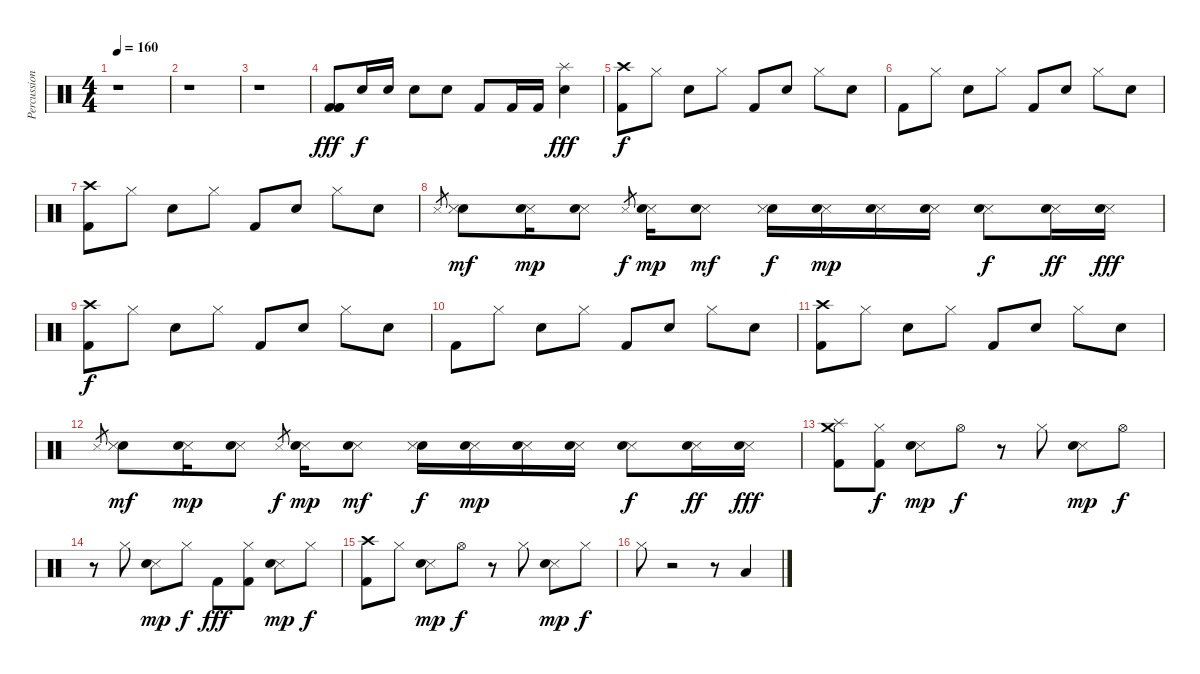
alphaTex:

\track ("Percussion" "Percussion") {instrument percussion}
\staff {score}
\articulation defaults
\ts (4 4)
\tempo 160
\clef neutral
\ks c
r.1{dy fff} |
r.1 |
r.1 |
("Kick (hit) 2" "Kick (hit) 2" "Kick (hit) 2").8 "Electric Snare (hit)".16{dy f} "Electric Snare (hit)".16 "Electric Snare (hit)".8 "Electric Snare (hit)".8 "Kick (hit) 2".8 "Kick (hit) 2".16 "Kick (hit) 2".16 ("Electric Snare (hit)" "Splash (hit)").4{dy fff} |
("Kick (hit) 2" "Crash high (hit)").8{dy f} "Hi-Hat (closed)".8 "Electric Snare (hit)".8 "Hi-Hat (closed)".8 "Kick (hit) 2".8 "Electric Snare (hit)".8 "Hi-Hat (closed)".8 "Electric Snare (hit)".8 |
"Kick (hit) 2".8 "Hi-Hat (closed)".8 "Electric Snare (hit)".8 "Hi-Hat (closed)".8 "Kick (hit) 2".8 "Electric Snare (hit)".8 "Hi-Hat (closed)".8 "Electric Snare (hit)".8 |
("Kick (hit) 2" "Crash high (hit)").8 "Hi-Hat (closed)".8 "Electric Snare (hit)".8 "Hi-Hat (closed)".8 "Kick (hit) 2".8 "Electric Snare (hit)".8 "Hi-Hat (closed)".8 "Electric Snare (hit)".8 |
"Snare (side stick) 3".8{gr} ("Electric Snare (hit)" "Snare (side stick) 3").8{dy mf} ("Snare (side stick) 3" "Electric Snare (hit)").16{dy mp} ("Snare (side stick) 3" "Electric Snare (hit)").8 "Snare (side stick) 3".8{gr dy f} ("Snare (side stick) 3" "Electric Snare (hit)").16{dy mp} ("Snare (side stick) 3" "Electric Snare (hit)").8{dy mf} ("Electric Snare (hit)" "Snare (side stick) 3").16{dy f} ("Snare (side stick) 3" "Electric Snare (hit)").16{dy mp} ("Snare (side stick) 3" "Electric Snare (hit)").16 ("Snare (side stick) 3" "Electric Snare (hit)").16 ("Snare (side stick) 3" "Electric Snare (hit)").8{dy f} ("Snare (side stick) 3" "Electric Snare (hit)").16{dy ff} ("Snare (side stick) 3" "Electric Snare (hit)").16{dy fff} |
("Kick (hit) 2" "Crash high (hit)").8{dy f} "Hi-Hat (closed)".8 "Electric Snare (hit)".8 "Hi-Hat (closed)".8 "Kick (hit) 2".8 "Electric Snare (hit)".8 "Hi-Hat (closed)".8 "Electric Snare (hit)".8 |
"Kick (hit) 2".8 "Hi-Hat (closed)".8 "Electric Snare (hit)".8 "Hi-Hat (closed)".8 "Kick (hit) 2".8 "Electric Snare (hit)".8 "Hi-Hat (closed)".8 "Electric Snare (hit)".8 |
("Kick (hit) 2" "Crash high (hit)").8 "Hi-Hat (closed)".8 "Electric Snare (hit)".8 "Hi-Hat (closed)".8 "Kick (hit) 2".8 "Electric Snare (hit)".8 "Hi-Hat (closed)".8 "Electric Snare (hit)".8 |
"Snare (side stick) 3".8{gr} ("Electric Snare (hit)" "Snare (side stick) 3").8{dy mf} ("Snare (side stick) 3" "Electric Snare (hit)").16{dy mp} ("Snare (side stick) 3" "Electric Snare (hit)").8 "Snare (side stick) 3".8{gr dy f} ("Snare (side stick) 3" "Electric Snare (hit)").16{dy mp} ("Snare (side stick) 3" "Electric Snare (hit)").8{dy mf} ("Electric Snare (hit)" "Snare (side stick) 3").16{dy f} ("Snare (side stick) 3" "Electric Snare (hit)").16{dy mp} ("Snare (side stick) 3" "Electric Snare (hit)").16 ("Snare (side stick) 3" "Electric Snare (hit)").16 ("Snare (side stick) 3" "Electric Snare (hit)").8{dy f} ("Snare (side stick) 3" "Electric Snare (hit)").16{dy ff} ("Snare (side stick) 3" "Electric Snare (hit)").16{dy fff} |
("Kick (hit) 2" "Crash medium (hit)" "Splash (hit)").8 ("Hi-Hat (closed)" "Kick (hit) 2").8{dy f} ("Snare (side stick) 3" "Electric Snare (hit)").8{dy mp} "Hi-Hat (open)".8{dy f} r.8 "Hi-Hat (closed)".8 ("Snare (side stick) 3" "Electric Snare (hit)").8{dy mp} "Hi-Hat (open)".8{dy f} |
r.8 "Hi-Hat (closed)".8 ("Snare (side stick) 3" "Electric Snare (hit)").8{dy mp} "Hi-Hat (closed)".8{dy f} "Kick (hit) 2".8{dy fff} ("Hi-Hat (closed)" "Kick (hit) 2").8 ("Snare (side stick) 3" "Electric Snare (hit)").8{dy mp} "Hi-Hat (closed)".8{dy f} |
("Kick (hit) 2" "Crash high (hit)").8 "Hi-Hat (closed)".8 ("Snare (side stick) 3" "Electric Snare (hit)").8{dy mp} "Hi-Hat (open)".8{dy f} r.8 "Hi-Hat (closed)".8 ("Snare (side stick) 3" "Electric Snare (hit)").8{dy mp} "Hi-Hat (closed)".8{dy f} |
"Hi-Hat (closed)".8 r.2 r.8 "Low Floor Tom (hit)".4
